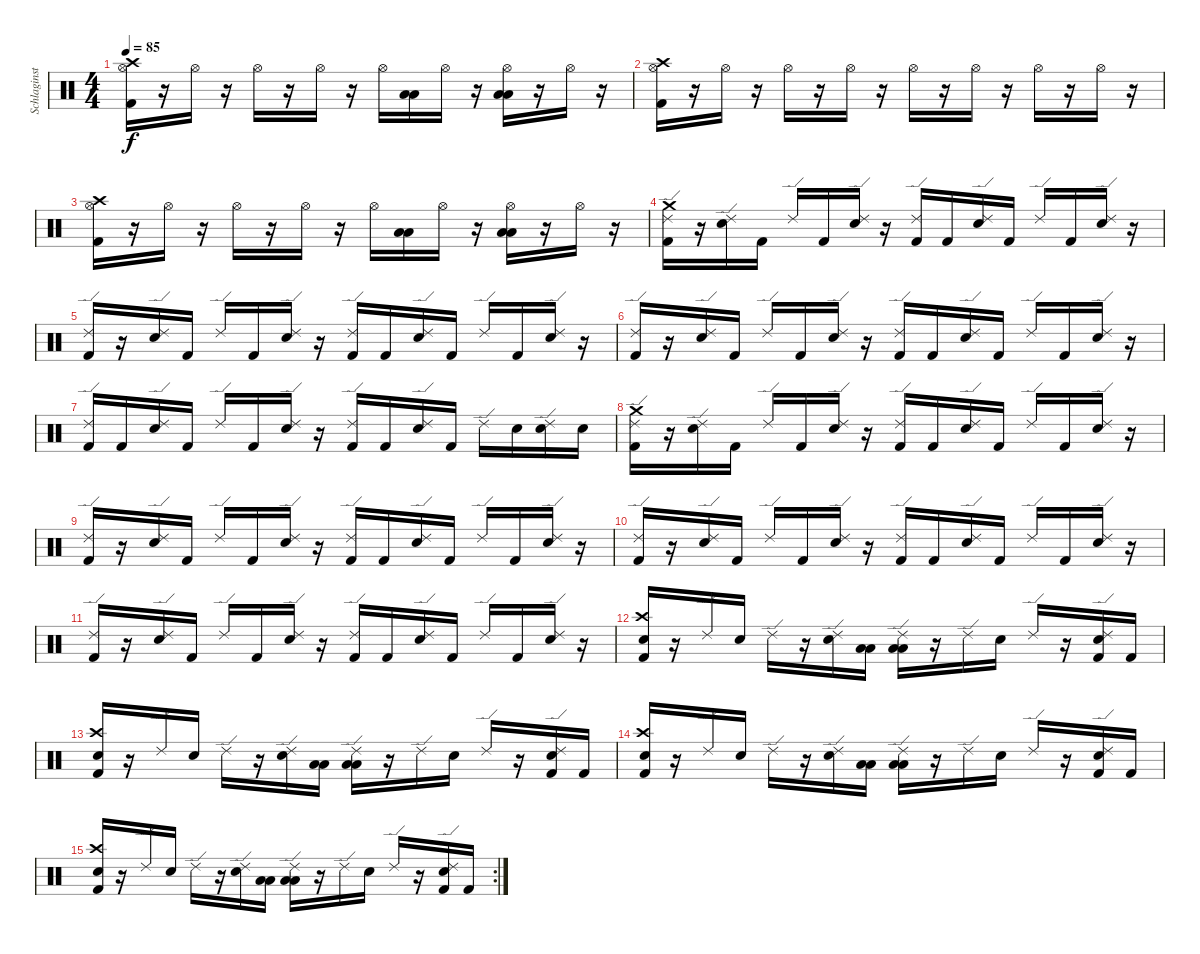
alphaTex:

\track ("Schlaginstrumente - Auswahl" "Schlaginst") {instrument percussion}
\staff {score}
\articulation defaults
\ts (4 4)
\tempo 85
\clef neutral
\ks c
("Kick (hit) 2" "Hi-Hat (open)" "Crash high (hit)").16{dy f} r.16 "Hi-Hat (open)".16 r.16 "Hi-Hat (open)".16 r.16 "Hi-Hat (open)".16 r.16 "Hi-Hat (open)".16 ("Low Tom (hit)" "Low Floor Tom (hit)").16 "Hi-Hat (open)".16 r.16 ("Low Floor Tom (hit)" "Low Tom (hit)" "Hi-Hat (open)").16 r.16 "Hi-Hat (open)".16 r.16 |
("Kick (hit) 2" "Hi-Hat (open)" "Crash high (hit)").16 r.16 "Hi-Hat (open)".16 r.16 "Hi-Hat (open)".16 r.16 "Hi-Hat (open)".16 r.16 "Hi-Hat (open)".16 r.16 "Hi-Hat (open)".16 r.16 "Hi-Hat (open)".16 r.16 "Hi-Hat (open)".16 r.16 |
("Kick (hit) 2" "Hi-Hat (open)" "Crash high (hit)").16 r.16 "Hi-Hat (open)".16 r.16 "Hi-Hat (open)".16 r.16 "Hi-Hat (open)".16 r.16 "Hi-Hat (open)".16 ("Low Tom (hit)" "Low Floor Tom (hit)").16 "Hi-Hat (open)".16 r.16 ("Low Floor Tom (hit)" "Low Tom (hit)" "Hi-Hat (open)").16 r.16 "Hi-Hat (open)".16 r.16 |
("Kick (hit) 2" "Ride (edge) 2" "Crash medium (hit)").16 r.16 ("Snare (hit) 2" "Ride (edge) 2").16 "Kick (hit) 2".16 "Ride (edge) 2".16 "Kick (hit) 2".16 ("Snare (hit) 2" "Ride (edge) 2").16 r.16 ("Kick (hit) 2" "Ride (edge) 2").16 "Kick (hit) 2".16 ("Snare (hit) 2" "Ride (edge) 2").16 "Kick (hit) 2".16 "Ride (edge) 2".16 "Kick (hit) 2".16 ("Snare (hit) 2" "Ride (edge) 2").16 r.16 |
("Kick (hit) 2" "Ride (edge) 2").16 r.16 ("Snare (hit) 2" "Ride (edge) 2").16 "Kick (hit) 2".16 "Ride (edge) 2".16 "Kick (hit) 2".16 ("Snare (hit) 2" "Ride (edge) 2").16 r.16 ("Kick (hit) 2" "Ride (edge) 2").16 "Kick (hit) 2".16 ("Snare (hit) 2" "Ride (edge) 2").16 "Kick (hit) 2".16 "Ride (edge) 2".16 "Kick (hit) 2".16 ("Snare (hit) 2" "Ride (edge) 2").16 r.16 |
("Kick (hit) 2" "Ride (edge) 2").16 r.16 ("Snare (hit) 2" "Ride (edge) 2").16 "Kick (hit) 2".16 "Ride (edge) 2".16 "Kick (hit) 2".16 ("Snare (hit) 2" "Ride (edge) 2").16 r.16 ("Kick (hit) 2" "Ride (edge) 2").16 "Kick (hit) 2".16 ("Snare (hit) 2" "Ride (edge) 2").16 "Kick (hit) 2".16 "Ride (edge) 2".16 "Kick (hit) 2".16 ("Snare (hit) 2" "Ride (edge) 2").16 r.16 |
("Kick (hit) 2" "Ride (edge) 2").16 "Kick (hit) 2".16 ("Snare (hit) 2" "Ride (edge) 2").16 "Kick (hit) 2".16 "Ride (edge) 2".16 "Kick (hit) 2".16 ("Snare (hit) 2" "Ride (edge) 2").16 r.16 ("Kick (hit) 2" "Ride (edge) 2").16 "Kick (hit) 2".16 ("Snare (hit) 2" "Ride (edge) 2").16 "Kick (hit) 2".16 "Ride (edge) 2".16 "Snare (hit) 2".16 ("Snare (hit) 2" "Ride (edge) 2").16 "Snare (hit) 2".16 |
("Kick (hit) 2" "Ride (edge) 2" "Crash medium (hit)").16 r.16 ("Snare (hit) 2" "Ride (edge) 2").16 "Kick (hit) 2".16 "Ride (edge) 2".16 "Kick (hit) 2".16 ("Snare (hit) 2" "Ride (edge) 2").16 r.16 ("Kick (hit) 2" "Ride (edge) 2").16 "Kick (hit) 2".16 ("Snare (hit) 2" "Ride (edge) 2").16 "Kick (hit) 2".16 "Ride (edge) 2".16 "Kick (hit) 2".16 ("Snare (hit) 2" "Ride (edge) 2").16 r.16 |
("Kick (hit) 2" "Ride (edge) 2").16 r.16 ("Snare (hit) 2" "Ride (edge) 2").16 "Kick (hit) 2".16 "Ride (edge) 2".16 "Kick (hit) 2".16 ("Snare (hit) 2" "Ride (edge) 2").16 r.16 ("Kick (hit) 2" "Ride (edge) 2").16 "Kick (hit) 2".16 ("Snare (hit) 2" "Ride (edge) 2").16 "Kick (hit) 2".16 "Ride (edge) 2".16 "Kick (hit) 2".16 ("Snare (hit) 2" "Ride (edge) 2").16 r.16 |
("Kick (hit) 2" "Ride (edge) 2").16 r.16 ("Snare (hit) 2" "Ride (edge) 2").16 "Kick (hit) 2".16 "Ride (edge) 2".16 "Kick (hit) 2".16 ("Snare (hit) 2" "Ride (edge) 2").16 r.16 ("Kick (hit) 2" "Ride (edge) 2").16 "Kick (hit) 2".16 ("Snare (hit) 2" "Ride (edge) 2").16 "Kick (hit) 2".16 "Ride (edge) 2".16 "Kick (hit) 2".16 ("Snare (hit) 2" "Ride (edge) 2").16 r.16 |
("Kick (hit) 2" "Ride (edge) 2").16 r.16 ("Snare (hit) 2" "Ride (edge) 2").16 "Kick (hit) 2".16 "Ride (edge) 2".16 "Kick (hit) 2".16 ("Snare (hit) 2" "Ride (edge) 2").16 r.16 ("Kick (hit) 2" "Ride (edge) 2").16 "Kick (hit) 2".16 ("Snare (hit) 2" "Ride (edge) 2").16 "Kick (hit) 2".16 "Ride (edge) 2".16 "Kick (hit) 2".16 ("Snare (hit) 2" "Ride (edge) 2").16 r.16 |
("Kick (hit) 2" "Snare (hit) 2" "Crash high (hit)").16 r.16 "Ride (edge) 2".16 "Snare (hit) 2".16 "Ride (edge) 2".16 r.16 ("Snare (hit) 2" "Ride (edge) 2").16 ("Low Floor Tom (hit)" "Low Tom (hit)").16 ("Low Floor Tom (hit)" "Low Tom (hit)" "Ride (edge) 2").16 r.16 "Ride (edge) 2".16 "Snare (hit) 2".16 "Ride (edge) 2".16 r.16 ("Kick (hit) 2" "Snare (hit) 2" "Ride (edge) 2").16 "Kick (hit) 2".16 |
("Kick (hit) 2" "Snare (hit) 2" "Crash high (hit)").16 r.16 "Ride (edge) 2".16 "Snare (hit) 2".16 "Ride (edge) 2".16 r.16 ("Snare (hit) 2" "Ride (edge) 2").16 ("Low Floor Tom (hit)" "Low Tom (hit)").16 ("Low Floor Tom (hit)" "Low Tom (hit)" "Ride (edge) 2").16 r.16 "Ride (edge) 2".16 "Snare (hit) 2".16 "Ride (edge) 2".16 r.16 ("Kick (hit) 2" "Snare (hit) 2" "Ride (edge) 2").16 "Kick (hit) 2".16 |
("Kick (hit) 2" "Snare (hit) 2" "Crash high (hit)").16 r.16 "Ride (edge) 2".16 "Snare (hit) 2".16 "Ride (edge) 2".16 r.16 ("Snare (hit) 2" "Ride (edge) 2").16 ("Low Floor Tom (hit)" "Low Tom (hit)").16 ("Low Floor Tom (hit)" "Low Tom (hit)" "Ride (edge) 2").16 r.16 "Ride (edge) 2".16 "Snare (hit) 2".16 "Ride (edge) 2".16 r.16 ("Kick (hit) 2" "Snare (hit) 2" "Ride (edge) 2").16 "Kick (hit) 2".16 |
\rc 2
("Kick (hit) 2" "Snare (hit) 2" "Crash high (hit)").16 r.16 "Ride (edge) 2".16 "Snare (hit) 2".16 "Ride (edge) 2".16 r.16 ("Snare (hit) 2" "Ride (edge) 2").16 ("Low Floor Tom (hit)" "Low Tom (hit)").16 ("Low Floor Tom (hit)" "Low Tom (hit)" "Ride (edge) 2").16 r.16 "Ride (edge) 2".16 "Snare (hit) 2".16 "Ride (edge) 2".16 r.16 ("Kick (hit) 2" "Snare (hit) 2" "Ride (edge) 2").16 "Kick (hit) 2".16
